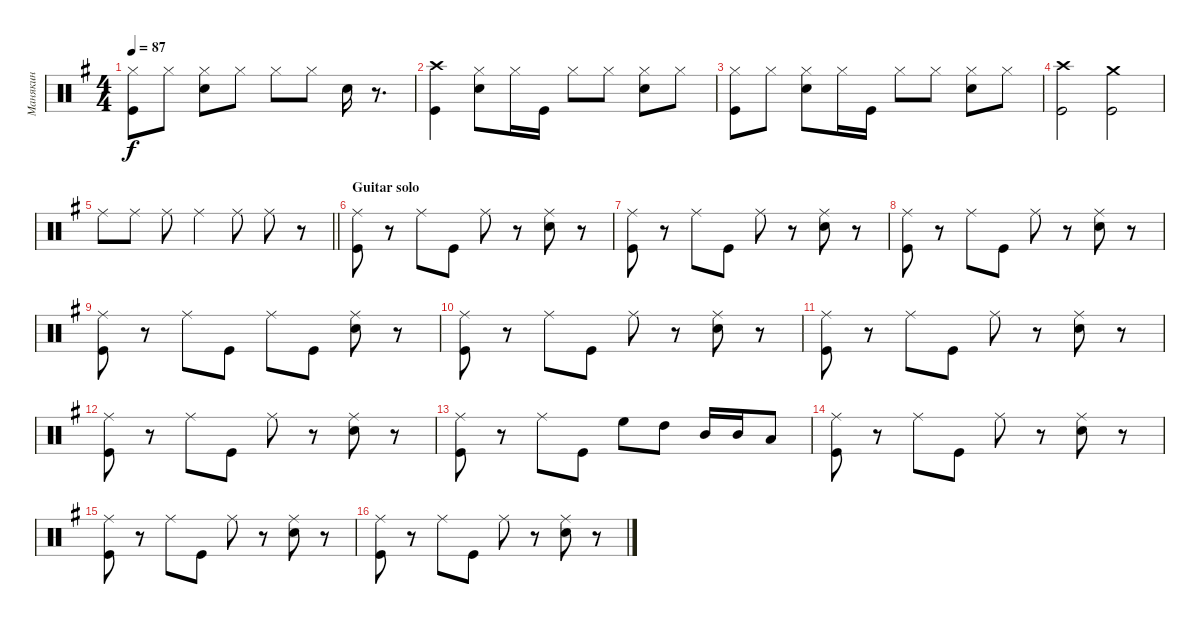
\track ("Манякин" "Манякин") {instrument percussion}
\staff {score}
\articulation defaults
\ts (4 4)
\tempo 87
\clef neutral
\ks g
("Hi-Hat (closed)" "Kick (hit)").8{dy f} "Hi-Hat (closed)".8 ("Hi-Hat (closed)" "Electric Snare (hit)").8 "Hi-Hat (closed)".8 "Hi-Hat (closed)".8 "Hi-Hat (closed)".8 "Electric Snare (hit)".16 r.8{d} |
("Kick (hit)" "Crash high (hit)").4 ("Electric Snare (hit)" "Hi-Hat (closed)").8 "Hi-Hat (closed)".16 "Kick (hit)".16 "Hi-Hat (closed)".8 "Hi-Hat (closed)".8 ("Electric Snare (hit)" "Hi-Hat (closed)").8 "Hi-Hat (closed)".8 |
("Kick (hit)" "Hi-Hat (closed)").8 "Hi-Hat (closed)".8 ("Hi-Hat (closed)" "Electric Snare (hit)").8 "Hi-Hat (closed)".16 "Kick (hit)".16 "Hi-Hat (closed)".8 "Hi-Hat (closed)".8 ("Electric Snare (hit)" "Hi-Hat (closed)").8 "Hi-Hat (closed)".8 |
("Crash high (hit)" "Kick (hit)").2 ("Kick (hit)" "Crash medium (hit)").2 |
\barLineRight lightlight "Ride (middle)".8 "Ride (middle)".8 "Ride (middle)".8 "Ride (middle)".4 "Ride (middle)".8 "Ride (middle)".8
r.8 |
\section ("" "Guitar solo")
("Ride (middle)" "Kick (hit)").8 r.8 "Ride (middle)".8 "Kick (hit)".8 "Ride (middle)".8 r.8 ("Ride (middle)" "Electric Snare (hit)").8 r.8 |
("Kick (hit)" "Ride (middle)").8 r.8 "Ride (middle)".8 "Kick (hit)".8 "Ride (middle)".8 r.8 ("Ride (middle)" "Electric Snare (hit)").8 r.8 |
("Ride (middle)" "Kick (hit)").8 r.8 "Ride (middle)".8 "Kick (hit)".8 "Ride (middle)".8 r.8 ("Ride (middle)" "Electric Snare (hit)").8 r.8 |
("Kick (hit)" "Ride (middle)").8 r.8 "Ride (middle)".8 "Kick (hit)".8 "Ride (middle)".8 "Kick (hit)".8 ("Electric Snare (hit)" "Ride (middle)").8 r.8 |
("Kick (hit)" "Ride (middle)").8 r.8 "Ride (middle)".8 "Kick (hit)".8 "Ride (middle)".8 r.8 ("Electric Snare (hit)" "Ride (middle)").8 r.8 |
("Ride (middle)" "Kick (hit)").8 r.8 "Ride (middle)".8 "Kick (hit)".8 "Ride (middle)".8 r.8 ("Electric Snare (hit)" "Ride (middle)").8 r.8 |
("Kick (hit)" "Ride (middle)").8 r.8 "Ride (middle)".8 "Kick (hit)".8 "Ride (middle)".8 r.8 ("Ride (middle)" "Electric Snare (hit)").8 r.8 |
("Ride (middle)" "Kick (hit)").8 r.8 "Ride (middle)".8 "Kick (hit)".8 "High Floor Tom (hit)".8 "High Tom (hit)".8 "Mid Tom (hit)".16 "Mid Tom (hit)".16 "Low Tom (hit)".8 |
("Ride (middle)" "Kick (hit)").8 r.8 "Ride (middle)".8 "Kick (hit)".8 "Ride (middle)".8 r.8 ("Electric Snare (hit)" "Ride (middle)").8 r.8 |
("Kick (hit)" "Ride (middle)").8 r.8 "Ride (middle)".8 "Kick (hit)".8 "Ride (middle)".8 r.8 ("Ride (middle)" "Electric Snare (hit)").8 r.8 |
("Kick (hit)" "Ride (middle)").8 r.8 "Ride (middle)".8 "Kick (hit)".8 "Ride (middle)".8 r.8 ("Ride (middle)" "Electric Snare (hit)").8 r.8
